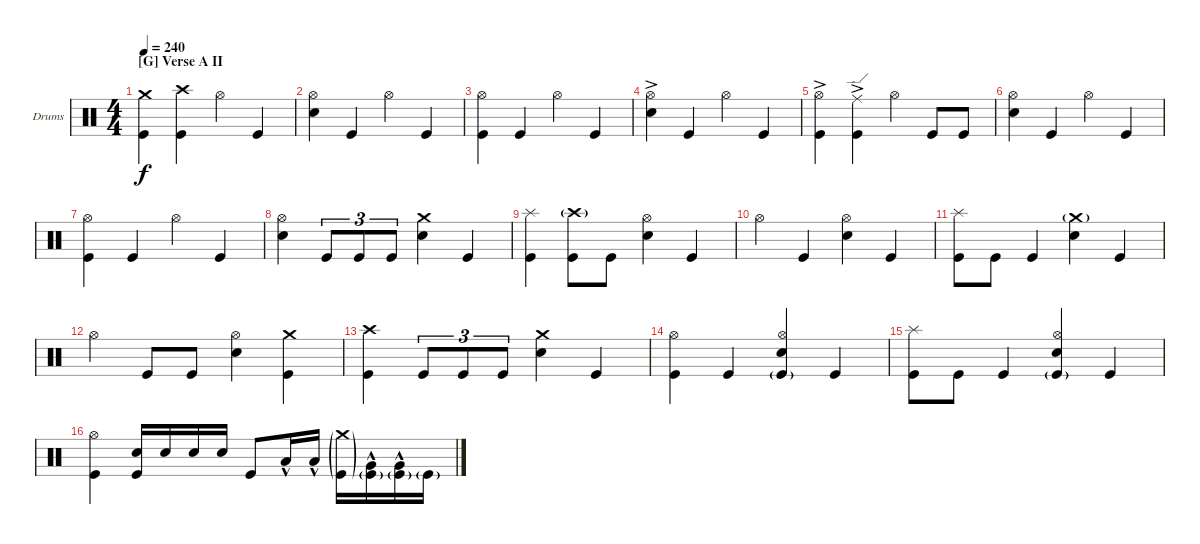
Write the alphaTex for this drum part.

\defaultSystemsLayout 4
\bracketExtendMode groupsimilarinstruments
\firstSystemTrackNameOrientation horizontal
\otherSystemsTrackNameOrientation horizontal
\track ("Drumkit" "Drums") {instrument percussion}
\staff {score}
\articulation defaults
\ts (4 4)
\section ("G" "Verse A II")
\tempo 240
\clef neutral
\ks c
("Kick (hit)" "Crash medium (hit)").4{dy f} ("Kick (hit)" "Crash high (hit)").4 "Hi-Hat (open)".4 "Kick (hit)".4 |
("Snare (hit) 2" "Hi-Hat (open)").4 "Kick (hit)".4 "Hi-Hat (open)".4 "Kick (hit)".4 |
("Kick (hit)" "Hi-Hat (open)").4 "Kick (hit)".4 "Hi-Hat (open)".4 "Kick (hit)".4 |
("Snare (hit) 2" "Hi-Hat (open)"{ac}).4 "Kick (hit)".4 "Hi-Hat (open)".4 "Kick (hit)".4 |
("Kick (hit)" "Hi-Hat (open)"{ac}).4 ("Kick (hit)" "Ride (edge)"{ac}).4 "Hi-Hat (open)".4 "Kick (hit)".8 "Kick (hit)".8 |
("Snare (hit) 2" "Hi-Hat (open)").4 "Kick (hit)".4 "Hi-Hat (open)".4 "Kick (hit)".4 |
("Kick (hit)" "Hi-Hat (open)").4 "Kick (hit)".4 "Hi-Hat (open)".4 "Kick (hit)".4 |
("Snare (hit) 2" "Hi-Hat (open)").4 "Kick (hit)".8{tu (3 2)} "Kick (hit)".8{tu (3 2)} "Kick (hit)".8{tu (3 2)} ("Snare (hit) 2" "Crash medium (hit)").4 "Kick (hit)".4 |
("Kick (hit)" "Splash (hit)").4 ("Crash high (hit)"{g} "Kick (hit)").8 "Kick (hit)".8 ("Snare (hit) 2" "Hi-Hat (open)").4 "Kick (hit)".4 |
"Hi-Hat (open)".4 "Kick (hit)".4 ("Snare (hit) 2" "Hi-Hat (open)").4 "Kick (hit)".4 |
("Kick (hit)" "Splash (hit)").8 "Kick (hit)".8 "Kick (hit)".4 ("Snare (hit) 2" "Crash medium (hit)"{g}).4 "Kick (hit)".4 |
"Hi-Hat (open)".4 "Kick (hit)".8 "Kick (hit)".8 ("Snare (hit) 2" "Hi-Hat (open)").4 ("Kick (hit)" "Crash medium (hit)").4 |
("Kick (hit)" "Crash high (hit)").4 "Kick (hit)".8{tu (3 2)} "Kick (hit)".8{tu (3 2)} "Kick (hit)".8{tu (3 2)} ("Snare (hit) 2" "Crash medium (hit)").4 "Kick (hit)".4 |
("Kick (hit)" "Hi-Hat (open)").4 "Kick (hit)".4 ("Snare (hit) 2" "Hi-Hat (open)" "Kick (hit)"{g}).4 "Kick (hit)".4 |
("Kick (hit)" "Splash (hit)").8 "Kick (hit)".8 "Kick (hit)".4 ("Snare (hit) 2" "Hi-Hat (open)" "Kick (hit)"{g}).4 "Kick (hit)".4 |
("Kick (hit)" "Hi-Hat (open)").4 ("Snare (hit) 2" "Kick (hit)").16 "Snare (hit) 2".16 "Snare (hit) 2".16 "Snare (hit) 2".16 "Kick (hit)".8 "Low Tom (hit)"{hac}.16 "Low Tom (hit)"{hac}.16 ("Kick (hit)"{g} "Crash medium (hit)"{g}).16 ("Very Low Tom (hit)"{hac} "Kick (hit)"{g}).16 ("Very Low Tom (hit)"{hac} "Kick (hit)"{g}).16 "Kick (hit)"{g}.16
